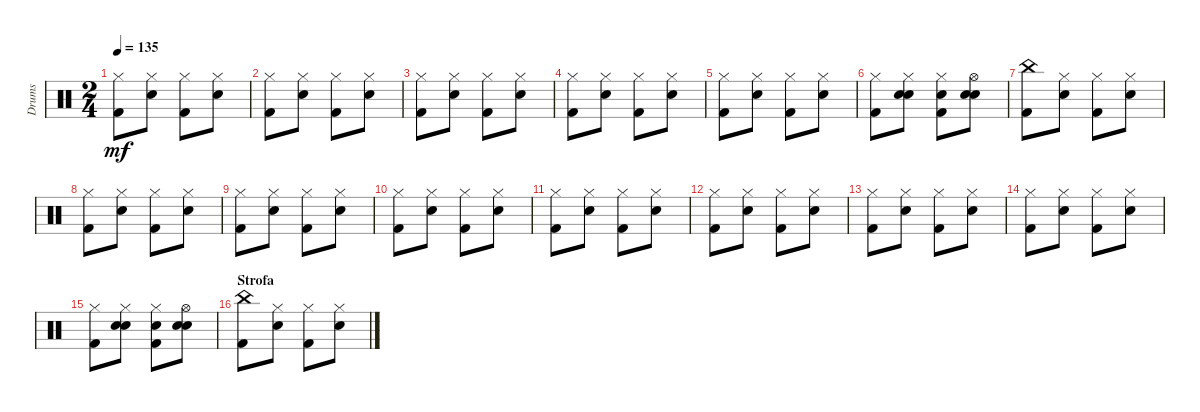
\track ("Drums" "Drums") {instrument percussion}
\staff {score}
\articulation defaults
\ts (2 4)
\tempo 135
\clef neutral
\ks c
("Hi-Hat (closed)" "Kick (hit) 2").8{dy mf} ("Hi-Hat (closed)" "Electric Snare (hit)").8 ("Hi-Hat (closed)" "Kick (hit) 2").8 ("Hi-Hat (closed)" "Electric Snare (hit)").8 |
("Hi-Hat (closed)" "Kick (hit) 2").8 ("Hi-Hat (closed)" "Electric Snare (hit)").8 ("Hi-Hat (closed)" "Kick (hit) 2").8 ("Hi-Hat (closed)" "Electric Snare (hit)").8 |
("Hi-Hat (closed)" "Kick (hit) 2").8 ("Hi-Hat (closed)" "Electric Snare (hit)").8 ("Hi-Hat (closed)" "Kick (hit) 2").8 ("Hi-Hat (closed)" "Electric Snare (hit)").8 |
("Hi-Hat (closed)" "Kick (hit) 2").8 ("Hi-Hat (closed)" "Electric Snare (hit)").8 ("Hi-Hat (closed)" "Kick (hit) 2").8 ("Hi-Hat (closed)" "Electric Snare (hit)").8 |
("Hi-Hat (closed)" "Kick (hit) 2").8 ("Hi-Hat (closed)" "Electric Snare (hit)").8 ("Hi-Hat (closed)" "Kick (hit) 2").8 ("Hi-Hat (closed)" "Electric Snare (hit)").8 |
("Hi-Hat (closed)" "Kick (hit) 2").8 ("Hi-Hat (closed)" "Electric Snare (hit)" "Hand Clap (hit)").8 ("Hi-Hat (closed)" "Hand Clap (hit)" "Kick (hit) 2").8 ("Hi-Hat (open)" "Electric Snare (hit)" "Hand Clap (hit)").8 |
("China (hit)" "Kick (hit) 2").8 ("Hi-Hat (closed)" "Electric Snare (hit)").8 ("Hi-Hat (closed)" "Kick (hit) 2").8 ("Hi-Hat (closed)" "Electric Snare (hit)").8 |
("Hi-Hat (closed)" "Kick (hit) 2").8 ("Hi-Hat (closed)" "Electric Snare (hit)").8 ("Hi-Hat (closed)" "Kick (hit) 2").8 ("Hi-Hat (closed)" "Electric Snare (hit)").8 |
("Hi-Hat (closed)" "Kick (hit) 2").8 ("Hi-Hat (closed)" "Electric Snare (hit)").8 ("Hi-Hat (closed)" "Kick (hit) 2").8 ("Hi-Hat (closed)" "Electric Snare (hit)").8 |
("Hi-Hat (closed)" "Kick (hit) 2").8 ("Hi-Hat (closed)" "Electric Snare (hit)").8 ("Hi-Hat (closed)" "Kick (hit) 2").8 ("Hi-Hat (closed)" "Electric Snare (hit)").8 |
("Hi-Hat (closed)" "Kick (hit) 2").8 ("Hi-Hat (closed)" "Electric Snare (hit)").8 ("Hi-Hat (closed)" "Kick (hit) 2").8 ("Hi-Hat (closed)" "Electric Snare (hit)").8 |
("Hi-Hat (closed)" "Kick (hit) 2").8 ("Hi-Hat (closed)" "Electric Snare (hit)").8 ("Hi-Hat (closed)" "Kick (hit) 2").8 ("Hi-Hat (closed)" "Electric Snare (hit)").8 |
("Hi-Hat (closed)" "Kick (hit) 2").8 ("Hi-Hat (closed)" "Electric Snare (hit)").8 ("Hi-Hat (closed)" "Kick (hit) 2").8 ("Hi-Hat (closed)" "Electric Snare (hit)").8 |
("Hi-Hat (closed)" "Kick (hit) 2").8 ("Hi-Hat (closed)" "Electric Snare (hit)").8 ("Hi-Hat (closed)" "Kick (hit) 2").8 ("Hi-Hat (closed)" "Electric Snare (hit)").8 |
("Hi-Hat (closed)" "Kick (hit) 2").8 ("Hi-Hat (closed)" "Electric Snare (hit)" "Hand Clap (hit)").8 ("Hi-Hat (closed)" "Hand Clap (hit)" "Kick (hit) 2").8 ("Hi-Hat (open)" "Electric Snare (hit)" "Hand Clap (hit)").8 |
\section ("" "Strofa")
("China (hit)" "Kick (hit) 2").8 ("Hi-Hat (closed)" "Electric Snare (hit)").8 ("Hi-Hat (closed)" "Kick (hit) 2").8 ("Hi-Hat (closed)" "Electric Snare (hit)").8
